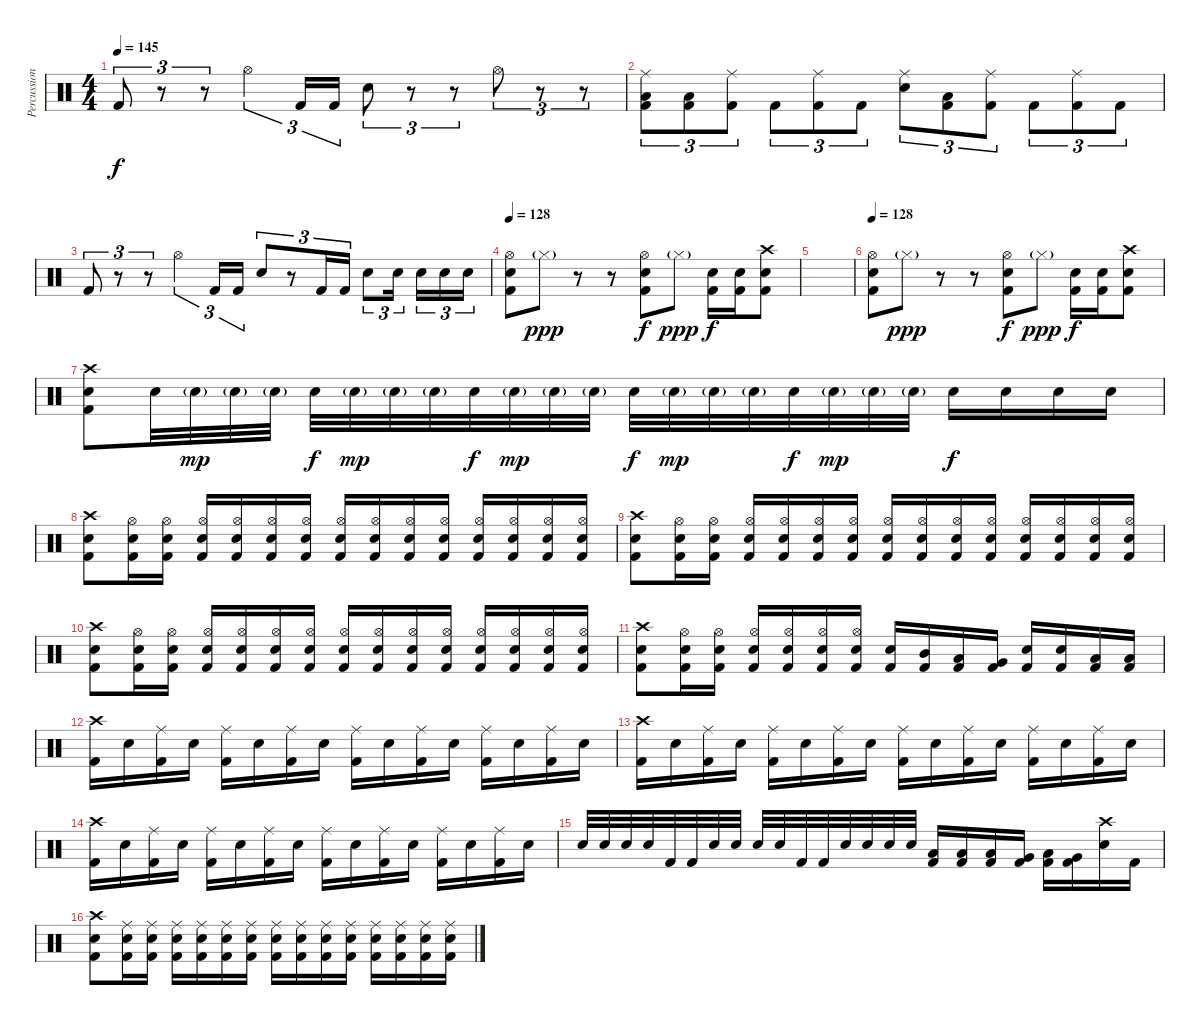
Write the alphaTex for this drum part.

\track ("Percussion" "Percussion") {instrument percussion}
\staff {score}
\articulation defaults
\ts (4 4)
\tempo 145
\clef neutral
\ks c "Kick (hit) 2".8{tu (3 2) dy f}
r.8{tu (3 2)} r.8{tu (3 2)} "Hi-Hat (open)".4{tu (3 2)} "Kick (hit) 2".16{tu (3 2)} "Kick (hit) 2".16{tu (3 2)} "Electric Snare (hit)".8{tu (3 2)} r.8{tu (3 2)} r.8{tu (3 2)} "Hi-Hat (open)".8{tu (3 2)} r.8{tu (3 2)} r.8{tu (3 2)} |
("Ride (middle)" "Low Floor Tom (hit)" "Kick (hit) 2").8{tu (3 2)} ("Low Floor Tom (hit)" "Kick (hit) 2").8{tu (3 2)} ("Ride (middle)" "Kick (hit) 2").8{tu (3 2)} "Kick (hit) 2".8{tu (3 2)} ("Ride (middle)" "Kick (hit) 2").8{tu (3 2)} "Kick (hit) 2".8{tu (3 2)} ("Ride (middle)" "Electric Snare (hit)").8{tu (3 2)} ("Low Floor Tom (hit)" "Kick (hit) 2").8{tu (3 2)} ("Ride (middle)" "Kick (hit) 2").8{tu (3 2)} "Kick (hit) 2".8{tu (3 2)} ("Ride (middle)" "Kick (hit) 2").8{tu (3 2)} "Kick (hit) 2".8{tu (3 2)} |
"Kick (hit) 2".8{tu (3 2)} r.8{tu (3 2)} r.8{tu (3 2)} "Hi-Hat (open)".4{tu (3 2)} "Kick (hit) 2".16{tu (3 2)} "Kick (hit) 2".16{tu (3 2)} "Electric Snare (hit)".8{tu (3 2)} r.8{tu (3 2)} "Kick (hit) 2".16{tu (3 2)} "Kick (hit) 2".16{tu (3 2)} "Electric Snare (hit)".8{tu (3 2)} "Electric Snare (hit)".16{tu (3 2)} "Electric Snare (hit)".16{tu (3 2)} "Electric Snare (hit)".16{tu (3 2)} "Electric Snare (hit)".16{tu (3 2)} |
\tempo 128
("Hi-Hat (open)" "Electric Snare (hit)" "Kick (hit) 2").8 "Hi-Hat (closed)"{g}.8{dy ppp} r.8 r.8 ("Hi-Hat (open)" "Electric Snare (hit)" "Kick (hit) 2").8{dy f} "Hi-Hat (closed)"{g}.8{dy ppp} ("Electric Snare (hit)" "Kick (hit) 2").16{dy f} ("Electric Snare (hit)" "Kick (hit) 2").16 ("Crash high (hit)" "Electric Snare (hit)" "Kick (hit) 2").8 |
|
\tempo 128
("Hi-Hat (open)" "Electric Snare (hit)" "Kick (hit) 2").8 "Hi-Hat (closed)"{g}.8{dy ppp} r.8 r.8 ("Hi-Hat (open)" "Electric Snare (hit)" "Kick (hit) 2").8{dy f} "Hi-Hat (closed)"{g}.8{dy ppp} ("Electric Snare (hit)" "Kick (hit) 2").16{dy f} ("Electric Snare (hit)" "Kick (hit) 2").16 ("Crash high (hit)" "Electric Snare (hit)" "Kick (hit) 2").8 |
("Crash high (hit)" "Electric Snare (hit)" "Kick (hit) 2").8 "Electric Snare (hit)".32 "Electric Snare (hit)"{g}.32{dy mp} "Electric Snare (hit)"{g}.32 "Electric Snare (hit)"{g}.32 "Electric Snare (hit)".32{dy f} "Electric Snare (hit)"{g}.32{dy mp} "Electric Snare (hit)"{g}.32 "Electric Snare (hit)"{g}.32 "Electric Snare (hit)".32{dy f} "Electric Snare (hit)"{g}.32{dy mp} "Electric Snare (hit)"{g}.32 "Electric Snare (hit)"{g}.32 "Electric Snare (hit)".32{dy f} "Electric Snare (hit)"{g}.32{dy mp} "Electric Snare (hit)"{g}.32 "Electric Snare (hit)"{g}.32 "Electric Snare (hit)".32{dy f} "Electric Snare (hit)"{g}.32{dy mp} "Electric Snare (hit)"{g}.32 "Electric Snare (hit)"{g}.32 "Electric Snare (hit)".16{dy f} "Electric Snare (hit)".16 "Electric Snare (hit)".16 "Electric Snare (hit)".16 |
("Crash high (hit)" "Electric Snare (hit)" "Kick (hit) 2").8 ("Hi-Hat (open)" "Electric Snare (hit)" "Kick (hit) 2").16 ("Hi-Hat (open)" "Electric Snare (hit)" "Kick (hit) 2").16 ("Hi-Hat (open)" "Electric Snare (hit)" "Kick (hit) 2").16 ("Hi-Hat (open)" "Electric Snare (hit)" "Kick (hit) 2").16 ("Hi-Hat (open)" "Electric Snare (hit)" "Kick (hit) 2").16 ("Hi-Hat (open)" "Electric Snare (hit)" "Kick (hit) 2").16 ("Hi-Hat (open)" "Electric Snare (hit)" "Kick (hit) 2").16 ("Hi-Hat (open)" "Electric Snare (hit)" "Kick (hit) 2").16 ("Hi-Hat (open)" "Electric Snare (hit)" "Kick (hit) 2").16 ("Hi-Hat (open)" "Electric Snare (hit)" "Kick (hit) 2").16 ("Hi-Hat (open)" "Electric Snare (hit)" "Kick (hit) 2").16 ("Hi-Hat (open)" "Electric Snare (hit)" "Kick (hit) 2").16 ("Hi-Hat (open)" "Electric Snare (hit)" "Kick (hit) 2").16 ("Hi-Hat (open)" "Electric Snare (hit)" "Kick (hit) 2").16 |
("Crash high (hit)" "Electric Snare (hit)" "Kick (hit) 2").8 ("Hi-Hat (open)" "Electric Snare (hit)" "Kick (hit) 2").16 ("Hi-Hat (open)" "Electric Snare (hit)" "Kick (hit) 2").16 ("Hi-Hat (open)" "Electric Snare (hit)" "Kick (hit) 2").16 ("Hi-Hat (open)" "Electric Snare (hit)" "Kick (hit) 2").16 ("Hi-Hat (open)" "Electric Snare (hit)" "Kick (hit) 2").16 ("Hi-Hat (open)" "Electric Snare (hit)" "Kick (hit) 2").16 ("Hi-Hat (open)" "Electric Snare (hit)" "Kick (hit) 2").16 ("Hi-Hat (open)" "Electric Snare (hit)" "Kick (hit) 2").16 ("Hi-Hat (open)" "Electric Snare (hit)" "Kick (hit) 2").16 ("Hi-Hat (open)" "Electric Snare (hit)" "Kick (hit) 2").16 ("Hi-Hat (open)" "Electric Snare (hit)" "Kick (hit) 2").16 ("Hi-Hat (open)" "Electric Snare (hit)" "Kick (hit) 2").16 ("Hi-Hat (open)" "Electric Snare (hit)" "Kick (hit) 2").16 ("Hi-Hat (open)" "Electric Snare (hit)" "Kick (hit) 2").16 |
("Crash high (hit)" "Electric Snare (hit)" "Kick (hit) 2").8 ("Hi-Hat (open)" "Electric Snare (hit)" "Kick (hit) 2").16 ("Hi-Hat (open)" "Electric Snare (hit)" "Kick (hit) 2").16 ("Hi-Hat (open)" "Electric Snare (hit)" "Kick (hit) 2").16 ("Hi-Hat (open)" "Electric Snare (hit)" "Kick (hit) 2").16 ("Hi-Hat (open)" "Electric Snare (hit)" "Kick (hit) 2").16 ("Hi-Hat (open)" "Electric Snare (hit)" "Kick (hit) 2").16 ("Hi-Hat (open)" "Electric Snare (hit)" "Kick (hit) 2").16 ("Hi-Hat (open)" "Electric Snare (hit)" "Kick (hit) 2").16 ("Hi-Hat (open)" "Electric Snare (hit)" "Kick (hit) 2").16 ("Hi-Hat (open)" "Electric Snare (hit)" "Kick (hit) 2").16 ("Hi-Hat (open)" "Electric Snare (hit)" "Kick (hit) 2").16 ("Hi-Hat (open)" "Electric Snare (hit)" "Kick (hit) 2").16 ("Hi-Hat (open)" "Electric Snare (hit)" "Kick (hit) 2").16 ("Hi-Hat (open)" "Electric Snare (hit)" "Kick (hit) 2").16 |
("Crash high (hit)" "Electric Snare (hit)" "Kick (hit) 2").8 ("Hi-Hat (open)" "Electric Snare (hit)" "Kick (hit) 2").16 ("Hi-Hat (open)" "Electric Snare (hit)" "Kick (hit) 2").16 ("Hi-Hat (open)" "Electric Snare (hit)" "Kick (hit) 2").16 ("Hi-Hat (open)" "Electric Snare (hit)" "Kick (hit) 2").16 ("Hi-Hat (open)" "Electric Snare (hit)" "Kick (hit) 2").16 ("Hi-Hat (open)" "Electric Snare (hit)" "Kick (hit) 2").16 ("Electric Snare (hit)" "Kick (hit) 2").16 ("Mid Tom (hit)" "Kick (hit) 2").16 ("Low Tom (hit)" "Kick (hit) 2").16 ("Very Low Tom (hit)" "Kick (hit) 2").16 ("Electric Snare (hit)" "Kick (hit) 2").16 ("Electric Snare (hit)" "Kick (hit) 2").16 ("Low Tom (hit)" "Kick (hit) 2").16 ("Low Tom (hit)" "Kick (hit) 2").16 |
("Crash high (hit)" "Kick (hit) 2").16 "Electric Snare (hit)".16 ("Ride (middle)" "Kick (hit) 2").16 "Electric Snare (hit)".16 ("Ride (middle)" "Kick (hit) 2").16 "Electric Snare (hit)".16 ("Ride (middle)" "Kick (hit) 2").16 "Electric Snare (hit)".16 ("Ride (middle)" "Kick (hit) 2").16 "Electric Snare (hit)".16 ("Ride (middle)" "Kick (hit) 2").16 "Electric Snare (hit)".16 ("Ride (middle)" "Kick (hit) 2").16 "Electric Snare (hit)".16 ("Ride (middle)" "Kick (hit) 2").16 "Electric Snare (hit)".16 |
("Crash high (hit)" "Kick (hit) 2").16 "Electric Snare (hit)".16 ("Ride (middle)" "Kick (hit) 2").16 "Electric Snare (hit)".16 ("Ride (middle)" "Kick (hit) 2").16 "Electric Snare (hit)".16 ("Ride (middle)" "Kick (hit) 2").16 "Electric Snare (hit)".16 ("Ride (middle)" "Kick (hit) 2").16 "Electric Snare (hit)".16 ("Ride (middle)" "Kick (hit) 2").16 "Electric Snare (hit)".16 ("Ride (middle)" "Kick (hit) 2").16 "Electric Snare (hit)".16 ("Ride (middle)" "Kick (hit) 2").16 "Electric Snare (hit)".16 |
("Crash high (hit)" "Kick (hit) 2").16 "Electric Snare (hit)".16 ("Ride (middle)" "Kick (hit) 2").16 "Electric Snare (hit)".16 ("Ride (middle)" "Kick (hit) 2").16 "Electric Snare (hit)".16 ("Ride (middle)" "Kick (hit) 2").16 "Electric Snare (hit)".16 ("Ride (middle)" "Kick (hit) 2").16 "Electric Snare (hit)".16 ("Ride (middle)" "Kick (hit) 2").16 "Electric Snare (hit)".16 ("Ride (middle)" "Kick (hit) 2").16 "Electric Snare (hit)".16 ("Ride (middle)" "Kick (hit) 2").16 "Electric Snare (hit)".16 |
"Electric Snare (hit)".32 "Electric Snare (hit)".32 "Electric Snare (hit)".32 "Electric Snare (hit)".32 "Kick (hit) 2".32 "Kick (hit) 2".32 "Electric Snare (hit)".32 "Electric Snare (hit)".32 "Electric Snare (hit)".32 "Electric Snare (hit)".32 "Kick (hit) 2".32 "Kick (hit) 2".32 "Electric Snare (hit)".32 "Electric Snare (hit)".32 "Electric Snare (hit)".32 "Electric Snare (hit)".32 ("Low Floor Tom (hit)" "Kick (hit) 2").16 ("Low Floor Tom (hit)" "Kick (hit) 2").16 ("Low Floor Tom (hit)" "Kick (hit) 2").16 ("Very Low Tom (hit)" "Kick (hit) 2").16 ("Low Tom (hit)" "Kick (hit) 2").16 ("Very Low Tom (hit)" "Kick (hit) 2").16 ("Crash high (hit)" "Electric Snare (hit)").16 "Kick (hit) 2".16 |
("Crash high (hit)" "Electric Snare (hit)" "Kick (hit) 2").8 ("Ride (middle)" "Electric Snare (hit)" "Kick (hit) 2").16 ("Ride (middle)" "Electric Snare (hit)" "Kick (hit) 2").16 ("Ride (middle)" "Electric Snare (hit)" "Kick (hit) 2").16 ("Ride (middle)" "Electric Snare (hit)" "Kick (hit) 2").16 ("Ride (middle)" "Electric Snare (hit)" "Kick (hit) 2").16 ("Ride (middle)" "Electric Snare (hit)" "Kick (hit) 2").16 ("Ride (middle)" "Electric Snare (hit)" "Kick (hit) 2").16 ("Ride (middle)" "Electric Snare (hit)" "Kick (hit) 2").16 ("Ride (middle)" "Electric Snare (hit)" "Kick (hit) 2").16 ("Ride (middle)" "Electric Snare (hit)" "Kick (hit) 2").16 ("Ride (middle)" "Electric Snare (hit)" "Kick (hit) 2").16 ("Ride (middle)" "Electric Snare (hit)" "Kick (hit) 2").16 ("Ride (middle)" "Electric Snare (hit)" "Kick (hit) 2").16 ("Ride (middle)" "Electric Snare (hit)" "Kick (hit) 2").16
